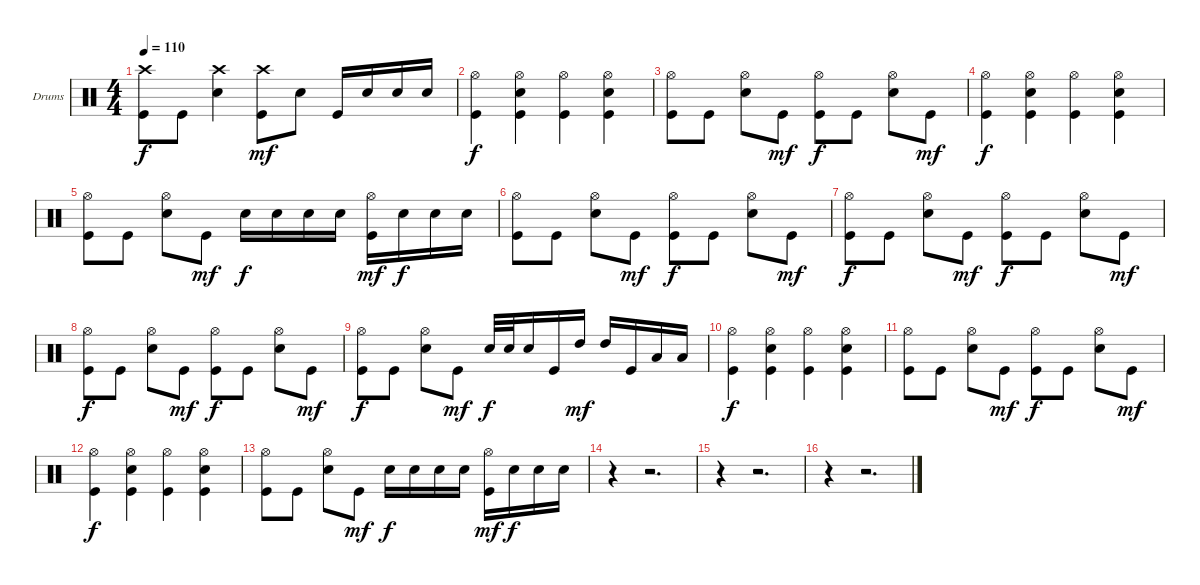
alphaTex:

\bracketExtendMode groupsimilarinstruments
\firstSystemTrackNameOrientation horizontal
\otherSystemsTrackNameOrientation horizontal
\track ("Drumkit" "Drums") {instrument percussion}
\staff {score}
\articulation defaults
\ts (4 4)
\tempo 110
\clef neutral
\ks c
("Crash high (hit)" "Kick (hit)").8{dy f} "Kick (hit)".8 ("Crash high (hit)" "Snare (hit) 2").4 ("Crash high (hit)" "Kick (hit)").8{dy mf} "Snare (hit) 2".8 "Kick (hit)".16 "Snare (hit) 2".16 "Snare (hit) 2".16 "Snare (hit) 2".16 |
("Hi-Hat (open)" "Kick (hit)").4{dy f} ("Hi-Hat (open)" "Snare (hit) 2" "Kick (hit)").4 ("Hi-Hat (open)" "Kick (hit)").4 ("Hi-Hat (open)" "Snare (hit) 2" "Kick (hit)").4 |
("Hi-Hat (open)" "Kick (hit)").8 "Kick (hit)".8 ("Hi-Hat (open)" "Snare (hit) 2").8 "Kick (hit)".8{dy mf} ("Hi-Hat (open)" "Kick (hit)").8{dy f} "Kick (hit)".8 ("Hi-Hat (open)" "Snare (hit) 2").8 "Kick (hit)".8{dy mf} |
("Hi-Hat (open)" "Kick (hit)").4{dy f} ("Hi-Hat (open)" "Snare (hit) 2" "Kick (hit)").4 ("Hi-Hat (open)" "Kick (hit)").4 ("Hi-Hat (open)" "Snare (hit) 2" "Kick (hit)").4 |
("Hi-Hat (open)" "Kick (hit)").8 "Kick (hit)".8 ("Hi-Hat (open)" "Snare (hit) 2").8 "Kick (hit)".8{dy mf} "Snare (hit) 2".16{dy f} "Snare (hit) 2".16 "Snare (hit) 2".16 "Snare (hit) 2".16 ("Hi-Hat (open)" "Kick (hit)").16{dy mf} "Snare (hit) 2".16{dy f} "Snare (hit) 2".16 "Snare (hit) 2".16 |
("Hi-Hat (open)" "Kick (hit)").8 "Kick (hit)".8 ("Hi-Hat (open)" "Snare (hit) 2").8 "Kick (hit)".8{dy mf} ("Hi-Hat (open)" "Kick (hit)").8{dy f} "Kick (hit)".8 ("Hi-Hat (open)" "Snare (hit) 2").8 "Kick (hit)".8{dy mf} |
("Hi-Hat (open)" "Kick (hit)").8{dy f} "Kick (hit)".8 ("Hi-Hat (open)" "Snare (hit) 2").8 "Kick (hit)".8{dy mf} ("Hi-Hat (open)" "Kick (hit)").8{dy f} "Kick (hit)".8 ("Hi-Hat (open)" "Snare (hit) 2").8 "Kick (hit)".8{dy mf} |
("Hi-Hat (open)" "Kick (hit)").8{dy f} "Kick (hit)".8 ("Hi-Hat (open)" "Snare (hit) 2").8 "Kick (hit)".8{dy mf} ("Hi-Hat (open)" "Kick (hit)").8{dy f} "Kick (hit)".8 ("Hi-Hat (open)" "Snare (hit) 2").8 "Kick (hit)".8{dy mf} |
("Hi-Hat (open)" "Kick (hit)").8{dy f} "Kick (hit)".8 ("Hi-Hat (open)" "Snare (hit) 2").8 "Kick (hit)".8{dy mf} "Snare (hit) 2".32{dy f} "Snare (hit) 2".32 "Snare (hit) 2".16 "Kick (hit)".16 "High Tom (hit)".16{dy mf} "High Tom (hit)".16 "Kick (hit)".16 "Low Tom (hit)".16 "Low Tom (hit)".16 |
("Hi-Hat (open)" "Kick (hit)").4{dy f} ("Hi-Hat (open)" "Snare (hit) 2" "Kick (hit)").4 ("Hi-Hat (open)" "Kick (hit)").4 ("Hi-Hat (open)" "Snare (hit) 2" "Kick (hit)").4 |
("Hi-Hat (open)" "Kick (hit)").8 "Kick (hit)".8 ("Hi-Hat (open)" "Snare (hit) 2").8 "Kick (hit)".8{dy mf} ("Hi-Hat (open)" "Kick (hit)").8{dy f} "Kick (hit)".8 ("Hi-Hat (open)" "Snare (hit) 2").8 "Kick (hit)".8{dy mf} |
("Hi-Hat (open)" "Kick (hit)").4{dy f} ("Hi-Hat (open)" "Snare (hit) 2" "Kick (hit)").4 ("Hi-Hat (open)" "Kick (hit)").4 ("Hi-Hat (open)" "Snare (hit) 2" "Kick (hit)").4 |
("Hi-Hat (open)" "Kick (hit)").8 "Kick (hit)".8 ("Hi-Hat (open)" "Snare (hit) 2").8 "Kick (hit)".8{dy mf} "Snare (hit) 2".16{dy f} "Snare (hit) 2".16 "Snare (hit) 2".16 "Snare (hit) 2".16 ("Hi-Hat (open)" "Kick (hit)").16{dy mf} "Snare (hit) 2".16{dy f} "Snare (hit) 2".16 "Snare (hit) 2".16 |
r.4 r.2{d} |
r.4 r.2{d} |
r.4 r.2{d}
